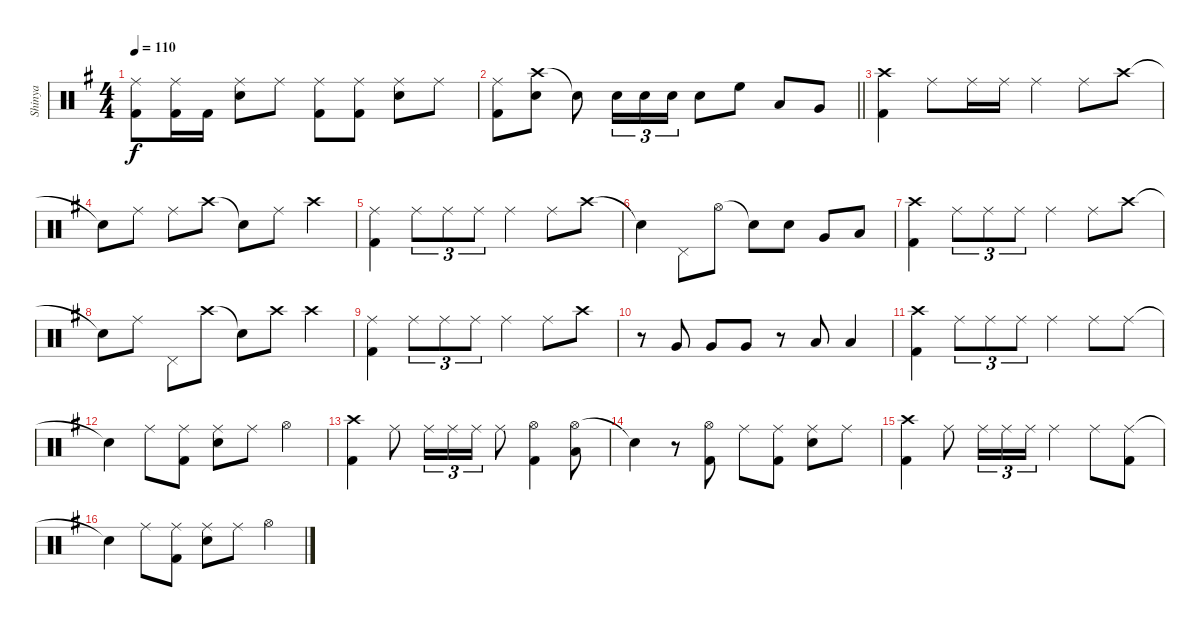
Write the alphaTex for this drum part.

\track ("Shinya" "Shinya") {instrument percussion}
\staff {score}
\articulation defaults
\ts (4 4)
\tempo 110
\clef neutral
\ks g
("Ride (middle)" "Kick (hit) 2").8{dy f} ("Ride (middle)" "Kick (hit) 2").16 "Kick (hit) 2".16 ("Ride (middle)" "Electric Snare (hit)").8 "Ride (middle)".8 ("Ride (middle)" "Kick (hit) 2").8 ("Ride (middle)" "Kick (hit) 2").8 ("Ride (middle)" "Electric Snare (hit)").8 "Ride (middle)".8 |
\barLineRight lightlight
("Ride (middle)" "Kick (hit) 2").8 ("Crash high (hit)" "Electric Snare (hit)").8 "Snare (hit)"{t}.8 "Electric Snare (hit)".16{tu (3 2)} "Electric Snare (hit)".16{tu (3 2)} "Electric Snare (hit)".16{tu (3 2)} "Electric Snare (hit)".8 "High Floor Tom (hit)".8 "Low Tom (hit)".8 "Very Low Tom (hit)".8 |
("Crash high (hit)" "Kick (hit) 2").4{volume 14} "Ride (middle)".8 "Ride (middle)".16 "Ride (middle)".16 "Ride (middle)".4 "Ride (middle)".8 "Crash high (hit)".8 |
"Snare (hit)"{t}.8 "Ride (middle)".8 "Ride (middle)".8 "Crash high (hit)".8 "Snare (hit)"{t}.8 "Ride (middle)".8 "Crash high (hit)".4 |
("Ride (middle)" "Kick (hit) 2").4 "Ride (middle)".8{tu (3 2)} "Ride (middle)".8{tu (3 2)} "Ride (middle)".8{tu (3 2)} "Ride (middle)".4 "Ride (middle)".8 "Crash high (hit)".8 |
"Snare (hit)"{t}.4 "Pedal Hi-Hat (hit)".8 "Hi-Hat (open)".8 "Snare (hit)"{t}.8 "Electric Snare (hit)".8 "Very Low Tom (hit)".8 "Low Floor Tom (hit)".8 |
("Crash high (hit)" "Kick (hit) 2").4 "Ride (middle)".8{tu (3 2)} "Ride (middle)".8{tu (3 2)} "Ride (middle)".8{tu (3 2)} "Ride (middle)".4 "Ride (middle)".8 "Crash high (hit)".8 |
"Snare (hit)"{t}.8 "Ride (middle)".8 "Pedal Hi-Hat (hit)".8 "Crash high (hit)".8 "Snare (hit)"{t}.8 "Crash high (hit)".8 "Crash high (hit)".4 |
("Ride (middle)" "Kick (hit) 2").4 "Ride (middle)".8{tu (3 2)} "Ride (middle)".8{tu (3 2)} "Ride (middle)".8{tu (3 2)} "Ride (middle)".4 "Ride (middle)".8 "Crash high (hit)".8 |
r.8 "Very Low Tom (hit)".8 "Very Low Tom (hit)".8 "Very Low Tom (hit)".8 r.8 "Low Floor Tom (hit)".8 "Low Floor Tom (hit)".4 |
("Crash high (hit)" "Kick (hit) 2").4 "Ride (middle)".8{tu (3 2)} "Ride (middle)".8{tu (3 2)} "Ride (middle)".8{tu (3 2)} "Ride (middle)".4 "Ride (middle)".8 "Ride (middle)".8 |
"Snare (hit)"{t}.4 "Ride (middle)".8 ("Ride (middle)" "Kick (hit) 2").8 ("Ride (middle)" "Electric Snare (hit)").8 "Ride (middle)".8 "Hi-Hat (open)".4 |
("Crash high (hit)" "Kick (hit) 2").4 "Ride (middle)".8 "Ride (middle)".16{tu (3 2)} "Ride (middle)".16{tu (3 2)} "Ride (middle)".16{tu (3 2)} "Ride (middle)".8 ("Hi-Hat (open)" "Kick (hit) 2").4 ("Hi-Hat (open)" "Low Tom (hit)").8 |
"Snare (hit)"{t}.4 r.8 ("Hi-Hat (open)" "Kick (hit) 2").8 "Ride (middle)".8 ("Ride (middle)" "Kick (hit) 2").8 ("Ride (middle)" "Electric Snare (hit)").8 "Ride (middle)".8 |
("Crash high (hit)" "Kick (hit) 2").4 "Ride (middle)".8 "Ride (middle)".16{tu (3 2)} "Ride (middle)".16{tu (3 2)} "Ride (middle)".16{tu (3 2)} "Ride (middle)".4 "Ride (middle)".8 ("Ride (middle)" "Kick (hit) 2").8 |
"Snare (hit)"{t}.4 "Ride (middle)".8 ("Ride (middle)" "Kick (hit) 2").8 ("Ride (middle)" "Electric Snare (hit)").8 "Ride (middle)".8 "Hi-Hat (open)".4
